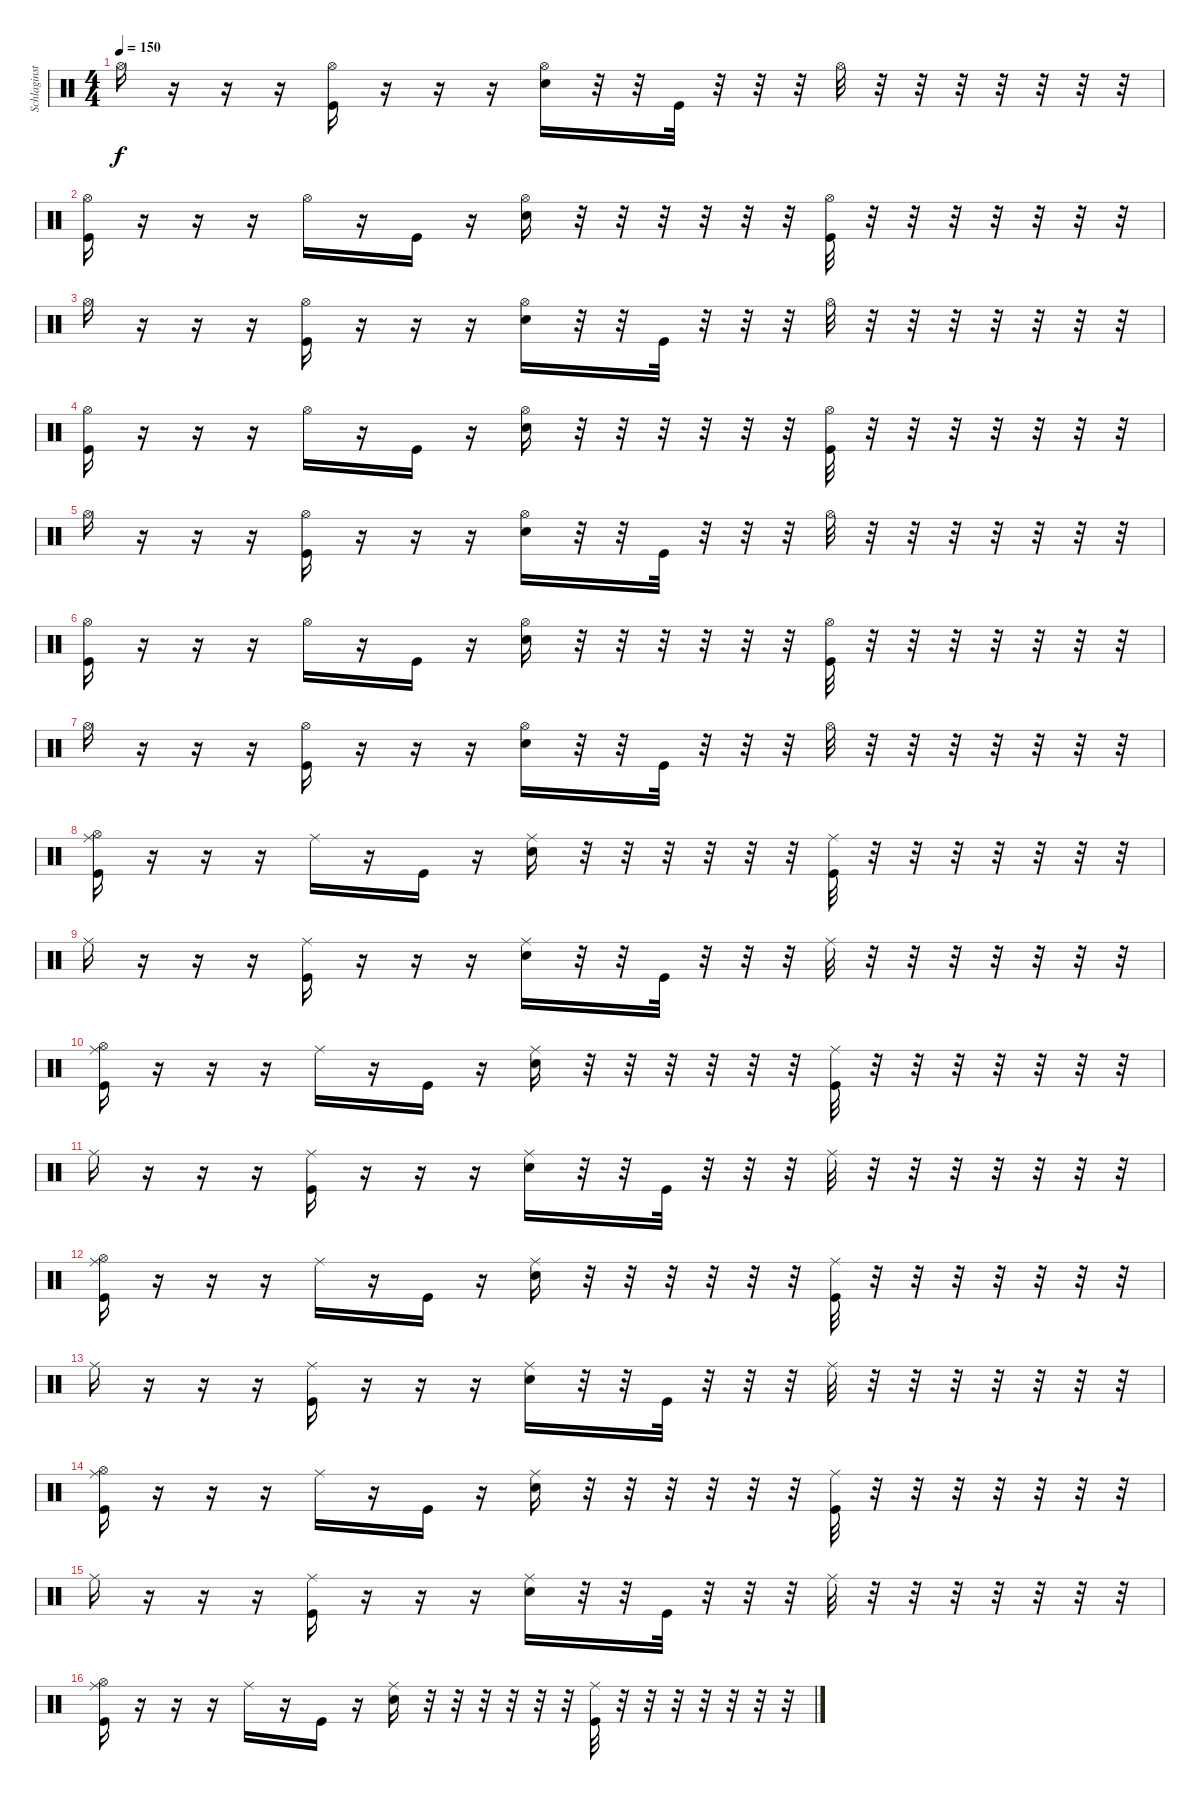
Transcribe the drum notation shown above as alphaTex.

\track ("Schlaginstrumente - Auswahl" "Schlaginst") {instrument percussion}
\staff {score}
\articulation defaults
\ts (4 4)
\tempo 150
\clef neutral
\ks c "Hi-Hat (open)".16{dy f}
r.16 r.16 r.16 ("Kick (hit)" "Hi-Hat (open)").16 r.16 r.16 r.16 ("Electric Snare (hit)" "Hi-Hat (open)").16 r.32 r.32 "Kick (hit)".32 r.32 r.32 r.32 "Hi-Hat (open)".32 r.32 r.32 r.32 r.32 r.32 r.32 r.32 |
("Kick (hit)" "Hi-Hat (open)").16 r.16 r.16 r.16 "Hi-Hat (open)".16 r.16 "Kick (hit)".16 r.16 ("Electric Snare (hit)" "Hi-Hat (open)").16 r.32 r.32 r.32 r.32 r.32 r.32 ("Kick (hit)" "Hi-Hat (open)").32 r.32 r.32 r.32 r.32 r.32 r.32 r.32 |
"Hi-Hat (open)".16 r.16 r.16 r.16 ("Kick (hit)" "Hi-Hat (open)").16 r.16 r.16 r.16 ("Electric Snare (hit)" "Hi-Hat (open)").16 r.32 r.32 "Kick (hit)".32 r.32 r.32 r.32 "Hi-Hat (open)".32 r.32 r.32 r.32 r.32 r.32 r.32 r.32 |
("Kick (hit)" "Hi-Hat (open)").16 r.16 r.16 r.16 "Hi-Hat (open)".16 r.16 "Kick (hit)".16 r.16 ("Electric Snare (hit)" "Hi-Hat (open)").16 r.32 r.32 r.32 r.32 r.32 r.32 ("Kick (hit)" "Hi-Hat (open)").32 r.32 r.32 r.32 r.32 r.32 r.32 r.32 |
"Hi-Hat (open)".16 r.16 r.16 r.16 ("Kick (hit)" "Hi-Hat (open)").16 r.16 r.16 r.16 ("Electric Snare (hit)" "Hi-Hat (open)").16 r.32 r.32 "Kick (hit)".32 r.32 r.32 r.32 "Hi-Hat (open)".32 r.32 r.32 r.32 r.32 r.32 r.32 r.32 |
("Kick (hit)" "Hi-Hat (open)").16 r.16 r.16 r.16 "Hi-Hat (open)".16 r.16 "Kick (hit)".16 r.16 ("Electric Snare (hit)" "Hi-Hat (open)").16 r.32 r.32 r.32 r.32 r.32 r.32 ("Kick (hit)" "Hi-Hat (open)").32 r.32 r.32 r.32 r.32 r.32 r.32 r.32 |
"Hi-Hat (open)".16 r.16 r.16 r.16 ("Kick (hit)" "Hi-Hat (open)").16 r.16 r.16 r.16 ("Electric Snare (hit)" "Hi-Hat (open)").16 r.32 r.32 "Kick (hit)".32 r.32 r.32 r.32 "Hi-Hat (open)".32 r.32 r.32 r.32 r.32 r.32 r.32 r.32 |
("Kick (hit)" "Hi-Hat (open)" "Ride (middle)").16 r.16 r.16 r.16 "Ride (middle)".16 r.16 "Kick (hit)".16 r.16 ("Electric Snare (hit)" "Ride (middle)").16 r.32 r.32 r.32 r.32 r.32 r.32 ("Kick (hit)" "Ride (middle)").32 r.32 r.32 r.32 r.32 r.32 r.32 r.32 |
"Ride (middle)".16 r.16 r.16 r.16 ("Kick (hit)" "Ride (middle)").16 r.16 r.16 r.16 ("Electric Snare (hit)" "Ride (middle)").16 r.32 r.32 "Kick (hit)".32 r.32 r.32 r.32 "Ride (middle)".32 r.32 r.32 r.32 r.32 r.32 r.32 r.32 |
("Kick (hit)" "Hi-Hat (open)" "Ride (middle)").16 r.16 r.16 r.16 "Ride (middle)".16 r.16 "Kick (hit)".16 r.16 ("Electric Snare (hit)" "Ride (middle)").16 r.32 r.32 r.32 r.32 r.32 r.32 ("Kick (hit)" "Ride (middle)").32 r.32 r.32 r.32 r.32 r.32 r.32 r.32 |
"Ride (middle)".16 r.16 r.16 r.16 ("Kick (hit)" "Ride (middle)").16 r.16 r.16 r.16 ("Electric Snare (hit)" "Ride (middle)").16 r.32 r.32 "Kick (hit)".32 r.32 r.32 r.32 "Ride (middle)".32 r.32 r.32 r.32 r.32 r.32 r.32 r.32 |
("Kick (hit)" "Hi-Hat (open)" "Ride (middle)").16 r.16 r.16 r.16 "Ride (middle)".16 r.16 "Kick (hit)".16 r.16 ("Electric Snare (hit)" "Ride (middle)").16 r.32 r.32 r.32 r.32 r.32 r.32 ("Kick (hit)" "Ride (middle)").32 r.32 r.32 r.32 r.32 r.32 r.32 r.32 |
"Ride (middle)".16 r.16 r.16 r.16 ("Kick (hit)" "Ride (middle)").16 r.16 r.16 r.16 ("Electric Snare (hit)" "Ride (middle)").16 r.32 r.32 "Kick (hit)".32 r.32 r.32 r.32 "Ride (middle)".32 r.32 r.32 r.32 r.32 r.32 r.32 r.32 |
("Kick (hit)" "Hi-Hat (open)" "Ride (middle)").16 r.16 r.16 r.16 "Ride (middle)".16 r.16 "Kick (hit)".16 r.16 ("Electric Snare (hit)" "Ride (middle)").16 r.32 r.32 r.32 r.32 r.32 r.32 ("Kick (hit)" "Ride (middle)").32 r.32 r.32 r.32 r.32 r.32 r.32 r.32 |
"Ride (middle)".16 r.16 r.16 r.16 ("Kick (hit)" "Ride (middle)").16 r.16 r.16 r.16 ("Electric Snare (hit)" "Ride (middle)").16 r.32 r.32 "Kick (hit)".32 r.32 r.32 r.32 "Ride (middle)".32 r.32 r.32 r.32 r.32 r.32 r.32 r.32 |
("Kick (hit)" "Hi-Hat (open)" "Ride (middle)").16 r.16 r.16 r.16 "Ride (middle)".16 r.16 "Kick (hit)".16 r.16 ("Electric Snare (hit)" "Ride (middle)").16 r.32 r.32 r.32 r.32 r.32 r.32 ("Kick (hit)" "Ride (middle)").32 r.32 r.32 r.32 r.32 r.32 r.32 r.32
